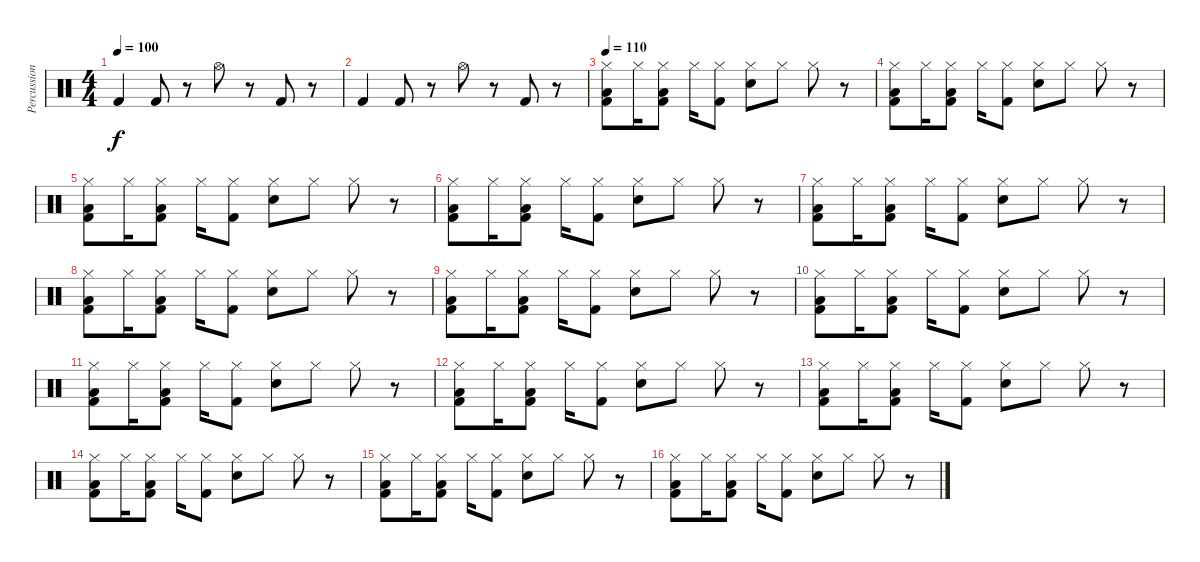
\track ("Percussioni" "Percussion") {instrument percussion}
\staff {score}
\articulation defaults
\ts (4 4)
\tempo 100
\clef neutral
\ks c "Kick (hit) 2".4{dy f} "Kick (hit) 2".8
r.8 "Hi-Hat (open)".8 r.8 "Kick (hit) 2".8 r.8 |
"Kick (hit) 2".4 "Kick (hit) 2".8 r.8 "Hi-Hat (open)".8 r.8 "Kick (hit) 2".8 r.8 |
\tempo 110
("Hi-Hat (closed)" "Low Tom (hit)" "Kick (hit) 2").8 "Hi-Hat (closed)".16 ("Hi-Hat (closed)" "Low Tom (hit)" "Kick (hit) 2").8 "Hi-Hat (closed)".16 ("Hi-Hat (closed)" "Kick (hit) 2").8 ("Hi-Hat (closed)" "Electric Snare (hit)").8 "Hi-Hat (closed)".8 "Hi-Hat (closed)".8 r.8 |
("Hi-Hat (closed)" "Low Tom (hit)" "Kick (hit) 2").8 "Hi-Hat (closed)".16 ("Hi-Hat (closed)" "Low Tom (hit)" "Kick (hit) 2").8 "Hi-Hat (closed)".16 ("Hi-Hat (closed)" "Kick (hit) 2").8 ("Hi-Hat (closed)" "Electric Snare (hit)").8 "Hi-Hat (closed)".8 "Hi-Hat (closed)".8 r.8 |
("Hi-Hat (closed)" "Low Tom (hit)" "Kick (hit) 2").8 "Hi-Hat (closed)".16 ("Hi-Hat (closed)" "Low Tom (hit)" "Kick (hit) 2").8 "Hi-Hat (closed)".16 ("Hi-Hat (closed)" "Kick (hit) 2").8 ("Hi-Hat (closed)" "Electric Snare (hit)").8 "Hi-Hat (closed)".8 "Hi-Hat (closed)".8 r.8 |
("Hi-Hat (closed)" "Low Tom (hit)" "Kick (hit) 2").8 "Hi-Hat (closed)".16 ("Hi-Hat (closed)" "Low Tom (hit)" "Kick (hit) 2").8 "Hi-Hat (closed)".16 ("Hi-Hat (closed)" "Kick (hit) 2").8 ("Hi-Hat (closed)" "Electric Snare (hit)").8 "Hi-Hat (closed)".8 "Hi-Hat (closed)".8 r.8 |
("Hi-Hat (closed)" "Low Tom (hit)" "Kick (hit) 2").8 "Hi-Hat (closed)".16 ("Hi-Hat (closed)" "Low Tom (hit)" "Kick (hit) 2").8 "Hi-Hat (closed)".16 ("Hi-Hat (closed)" "Kick (hit) 2").8 ("Hi-Hat (closed)" "Electric Snare (hit)").8 "Hi-Hat (closed)".8 "Hi-Hat (closed)".8 r.8 |
("Hi-Hat (closed)" "Low Tom (hit)" "Kick (hit) 2").8 "Hi-Hat (closed)".16 ("Hi-Hat (closed)" "Low Tom (hit)" "Kick (hit) 2").8 "Hi-Hat (closed)".16 ("Hi-Hat (closed)" "Kick (hit) 2").8 ("Hi-Hat (closed)" "Electric Snare (hit)").8 "Hi-Hat (closed)".8 "Hi-Hat (closed)".8 r.8 |
("Hi-Hat (closed)" "Low Tom (hit)" "Kick (hit) 2").8 "Hi-Hat (closed)".16 ("Hi-Hat (closed)" "Low Tom (hit)" "Kick (hit) 2").8 "Hi-Hat (closed)".16 ("Hi-Hat (closed)" "Kick (hit) 2").8 ("Hi-Hat (closed)" "Electric Snare (hit)").8 "Hi-Hat (closed)".8 "Hi-Hat (closed)".8 r.8 |
("Hi-Hat (closed)" "Low Tom (hit)" "Kick (hit) 2").8 "Hi-Hat (closed)".16 ("Hi-Hat (closed)" "Low Tom (hit)" "Kick (hit) 2").8 "Hi-Hat (closed)".16 ("Hi-Hat (closed)" "Kick (hit) 2").8 ("Hi-Hat (closed)" "Electric Snare (hit)").8 "Hi-Hat (closed)".8 "Hi-Hat (closed)".8 r.8 |
("Hi-Hat (closed)" "Low Tom (hit)" "Kick (hit) 2").8 "Hi-Hat (closed)".16 ("Hi-Hat (closed)" "Low Tom (hit)" "Kick (hit) 2").8 "Hi-Hat (closed)".16 ("Hi-Hat (closed)" "Kick (hit) 2").8 ("Hi-Hat (closed)" "Electric Snare (hit)").8 "Hi-Hat (closed)".8 "Hi-Hat (closed)".8 r.8 |
("Hi-Hat (closed)" "Low Tom (hit)" "Kick (hit) 2").8 "Hi-Hat (closed)".16 ("Hi-Hat (closed)" "Low Tom (hit)" "Kick (hit) 2").8 "Hi-Hat (closed)".16 ("Hi-Hat (closed)" "Kick (hit) 2").8 ("Hi-Hat (closed)" "Electric Snare (hit)").8 "Hi-Hat (closed)".8 "Hi-Hat (closed)".8 r.8 |
("Hi-Hat (closed)" "Low Tom (hit)" "Kick (hit) 2").8 "Hi-Hat (closed)".16 ("Hi-Hat (closed)" "Low Tom (hit)" "Kick (hit) 2").8 "Hi-Hat (closed)".16 ("Hi-Hat (closed)" "Kick (hit) 2").8 ("Hi-Hat (closed)" "Electric Snare (hit)").8 "Hi-Hat (closed)".8 "Hi-Hat (closed)".8 r.8 |
("Hi-Hat (closed)" "Low Tom (hit)" "Kick (hit) 2").8 "Hi-Hat (closed)".16 ("Hi-Hat (closed)" "Low Tom (hit)" "Kick (hit) 2").8 "Hi-Hat (closed)".16 ("Hi-Hat (closed)" "Kick (hit) 2").8 ("Hi-Hat (closed)" "Electric Snare (hit)").8 "Hi-Hat (closed)".8 "Hi-Hat (closed)".8 r.8 |
("Hi-Hat (closed)" "Low Tom (hit)" "Kick (hit) 2").8 "Hi-Hat (closed)".16 ("Hi-Hat (closed)" "Low Tom (hit)" "Kick (hit) 2").8 "Hi-Hat (closed)".16 ("Hi-Hat (closed)" "Kick (hit) 2").8 ("Hi-Hat (closed)" "Electric Snare (hit)").8 "Hi-Hat (closed)".8 "Hi-Hat (closed)".8 r.8 |
("Hi-Hat (closed)" "Low Tom (hit)" "Kick (hit) 2").8 "Hi-Hat (closed)".16 ("Hi-Hat (closed)" "Low Tom (hit)" "Kick (hit) 2").8 "Hi-Hat (closed)".16 ("Hi-Hat (closed)" "Kick (hit) 2").8 ("Hi-Hat (closed)" "Electric Snare (hit)").8 "Hi-Hat (closed)".8 "Hi-Hat (closed)".8 r.8
